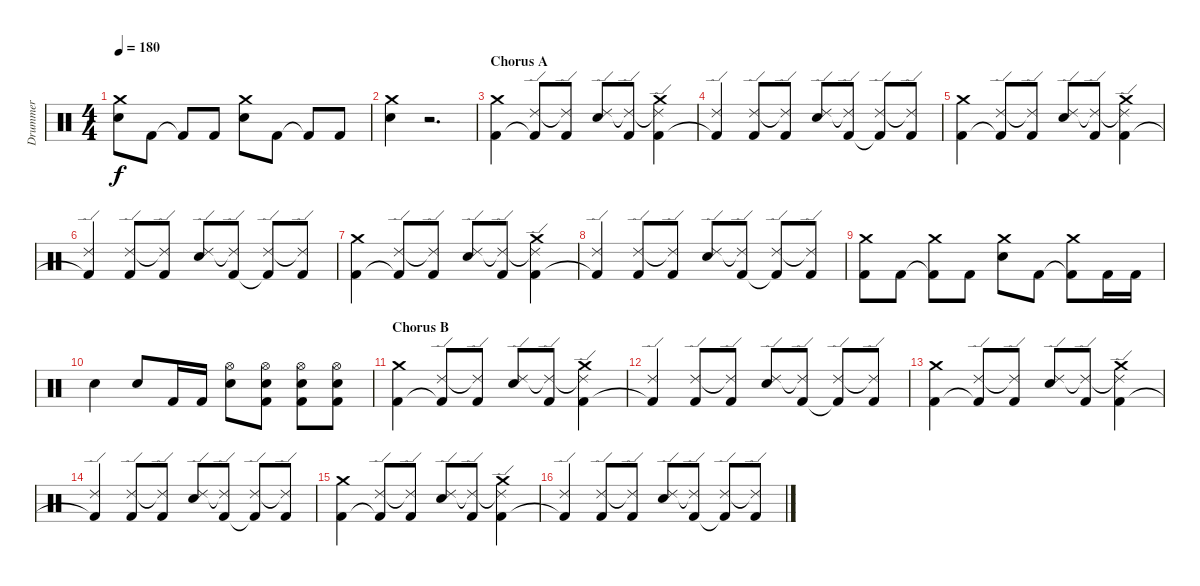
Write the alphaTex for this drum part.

\track ("Drummer" "Drummer") {instrument percussion}
\staff {score}
\articulation defaults
\ts (4 4)
\tempo 180
\clef neutral
\ks c
("Snare (hit) 2" "Crash medium (hit)").8{dy f} "Kick (hit) 2".8 "Kick (hit) 2"{t}.8 "Kick (hit) 2".8 ("Snare (hit) 2" "Crash medium (hit)").8 "Kick (hit) 2".8 "Kick (hit) 2"{t}.8 "Kick (hit) 2".8 |
("Snare (hit) 2" "Crash medium (hit)").4 r.2{d} |
\section ("" "Chorus A")
("Kick (hit) 2" "Crash medium (hit)").4 ("Kick (hit) 2"{t} "Ride (edge) 2").8 ("Kick (hit) 2" "Ride (edge) 2"{t}).8 ("Snare (hit) 2" "Ride (edge) 2").8 ("Kick (hit) 2" "Ride (edge) 2"{t}).8 ("Kick (hit) 2" "Ride (edge) 2"{t} "Crash medium (hit)").4 |
("Kick (hit) 2"{t} "Ride (edge) 2").4 ("Kick (hit) 2" "Ride (edge) 2").8 ("Kick (hit) 2" "Ride (edge) 2"{t}).8 ("Snare (hit) 2" "Ride (edge) 2").8 ("Kick (hit) 2" "Ride (edge) 2"{t}).8 ("Kick (hit) 2"{t} "Ride (edge) 2").8 ("Kick (hit) 2" "Ride (edge) 2"{t}).8 |
("Kick (hit) 2" "Crash medium (hit)").4 ("Kick (hit) 2"{t} "Ride (edge) 2").8 ("Kick (hit) 2" "Ride (edge) 2"{t}).8 ("Snare (hit) 2" "Ride (edge) 2").8 ("Kick (hit) 2" "Ride (edge) 2"{t}).8 ("Kick (hit) 2" "Ride (edge) 2"{t} "Crash medium (hit)").4 |
("Kick (hit) 2"{t} "Ride (edge) 2").4 ("Kick (hit) 2" "Ride (edge) 2").8 ("Kick (hit) 2" "Ride (edge) 2"{t}).8 ("Snare (hit) 2" "Ride (edge) 2").8 ("Kick (hit) 2" "Ride (edge) 2"{t}).8 ("Kick (hit) 2"{t} "Ride (edge) 2").8 ("Kick (hit) 2" "Ride (edge) 2"{t}).8 |
("Kick (hit) 2" "Crash medium (hit)").4 ("Kick (hit) 2"{t} "Ride (edge) 2").8 ("Kick (hit) 2" "Ride (edge) 2"{t}).8 ("Snare (hit) 2" "Ride (edge) 2").8 ("Kick (hit) 2" "Ride (edge) 2"{t}).8 ("Kick (hit) 2" "Ride (edge) 2"{t} "Crash medium (hit)").4 |
("Kick (hit) 2"{t} "Ride (edge) 2").4 ("Kick (hit) 2" "Ride (edge) 2").8 ("Kick (hit) 2" "Ride (edge) 2"{t}).8 ("Snare (hit) 2" "Ride (edge) 2").8 ("Kick (hit) 2" "Ride (edge) 2"{t}).8 ("Kick (hit) 2"{t} "Ride (edge) 2").8 ("Kick (hit) 2" "Ride (edge) 2"{t}).8 |
("Kick (hit) 2" "Crash medium (hit)").8 "Kick (hit) 2".8 ("Kick (hit) 2"{t} "Crash medium (hit)").8 "Kick (hit) 2".8 ("Snare (hit) 2" "Crash medium (hit)").8 "Kick (hit) 2".8 ("Kick (hit) 2"{t} "Crash medium (hit)").8 "Kick (hit) 2".16 "Kick (hit) 2".16 |
"Electric Snare (hit)".4 "Electric Snare (hit)".8 "Kick (hit) 2".16 "Kick (hit) 2".16 ("Electric Snare (hit)" "Hi-Hat (open)").8 ("Kick (hit) 2" "Electric Snare (hit)" "Hi-Hat (open)").8 ("Kick (hit) 2" "Electric Snare (hit)" "Hi-Hat (open)").8 ("Kick (hit) 2" "Electric Snare (hit)" "Hi-Hat (open)").8 |
\section ("" "Chorus B")
("Kick (hit) 2" "Crash medium (hit)").4 ("Kick (hit) 2"{t} "Ride (edge) 2").8 ("Kick (hit) 2" "Ride (edge) 2"{t}).8 ("Snare (hit) 2" "Ride (edge) 2").8 ("Kick (hit) 2" "Ride (edge) 2"{t}).8 ("Kick (hit) 2" "Ride (edge) 2"{t} "Crash medium (hit)").4 |
("Kick (hit) 2"{t} "Ride (edge) 2").4 ("Kick (hit) 2" "Ride (edge) 2").8 ("Kick (hit) 2" "Ride (edge) 2"{t}).8 ("Snare (hit) 2" "Ride (edge) 2").8 ("Kick (hit) 2" "Ride (edge) 2"{t}).8 ("Kick (hit) 2"{t} "Ride (edge) 2").8 ("Kick (hit) 2" "Ride (edge) 2"{t}).8 |
("Kick (hit) 2" "Crash medium (hit)").4 ("Kick (hit) 2"{t} "Ride (edge) 2").8 ("Kick (hit) 2" "Ride (edge) 2"{t}).8 ("Snare (hit) 2" "Ride (edge) 2").8 ("Kick (hit) 2" "Ride (edge) 2"{t}).8 ("Kick (hit) 2" "Ride (edge) 2"{t} "Crash medium (hit)").4 |
("Kick (hit) 2"{t} "Ride (edge) 2").4 ("Kick (hit) 2" "Ride (edge) 2").8 ("Kick (hit) 2" "Ride (edge) 2"{t}).8 ("Snare (hit) 2" "Ride (edge) 2").8 ("Kick (hit) 2" "Ride (edge) 2"{t}).8 ("Kick (hit) 2"{t} "Ride (edge) 2").8 ("Kick (hit) 2" "Ride (edge) 2"{t}).8 |
("Kick (hit) 2" "Crash medium (hit)").4 ("Kick (hit) 2"{t} "Ride (edge) 2").8 ("Kick (hit) 2" "Ride (edge) 2"{t}).8 ("Snare (hit) 2" "Ride (edge) 2").8 ("Kick (hit) 2" "Ride (edge) 2"{t}).8 ("Kick (hit) 2" "Ride (edge) 2"{t} "Crash medium (hit)").4 |
("Kick (hit) 2"{t} "Ride (edge) 2").4 ("Kick (hit) 2" "Ride (edge) 2").8 ("Kick (hit) 2" "Ride (edge) 2"{t}).8 ("Snare (hit) 2" "Ride (edge) 2").8 ("Kick (hit) 2" "Ride (edge) 2"{t}).8 ("Kick (hit) 2"{t} "Ride (edge) 2").8 ("Kick (hit) 2" "Ride (edge) 2"{t}).8
